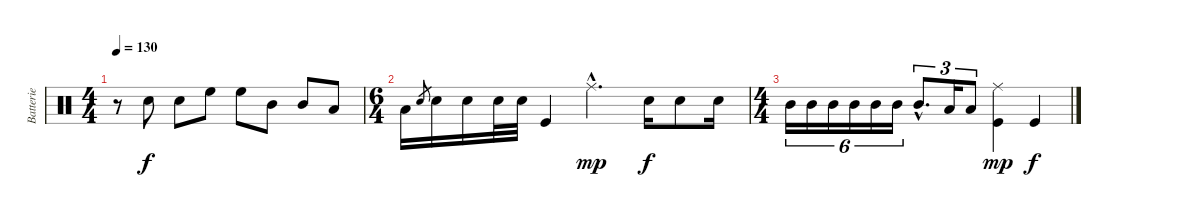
\track ("Batterie" "Batterie") {instrument percussion}
\staff {score}
\articulation defaults
\ts (4 4)
\tempo 130
\clef neutral
\ks c
r.8{dy mp} "Snare (hit) 2".8{dy f} "Snare (hit) 2".8 "High Floor Tom (hit)".8 "High Floor Tom (hit)".8 "Mid Tom (hit)".8 "Mid Tom (hit)".8 "Low Tom (hit)".8 |
\ts (6 4)
"Low Tom (hit)".16 "Snare (hit) 2".8{gr} "Snare (hit) 2".16 "Snare (hit) 2".16 "Snare (hit) 2".32 "Snare (hit) 2".32 "Kick (hit)".4 "Ride (middle)"{hac}.2{d dy mp} "Snare (hit) 2".16{dy f} "Snare (hit) 2".8 "Snare (hit) 2".16 |
\ts (4 4)
"Mid Tom (hit)".16{tu (6 4)} "Mid Tom (hit)".16{tu (6 4)} "Mid Tom (hit)".16{tu (6 4)} "Mid Tom (hit)".16{tu (6 4)} "Mid Tom (hit)".16{tu (6 4)} "Mid Tom (hit)".16{tu (6 4)} "Mid Tom (hit)"{hac}.8{d tu (3 2)} "Low Tom (hit)".16{tu (3 2)} "Low Tom (hit)".8{tu (3 2)} ("Ride (middle)" "Kick (hit)").4{dy mp} "Kick (hit)".4{dy f}
